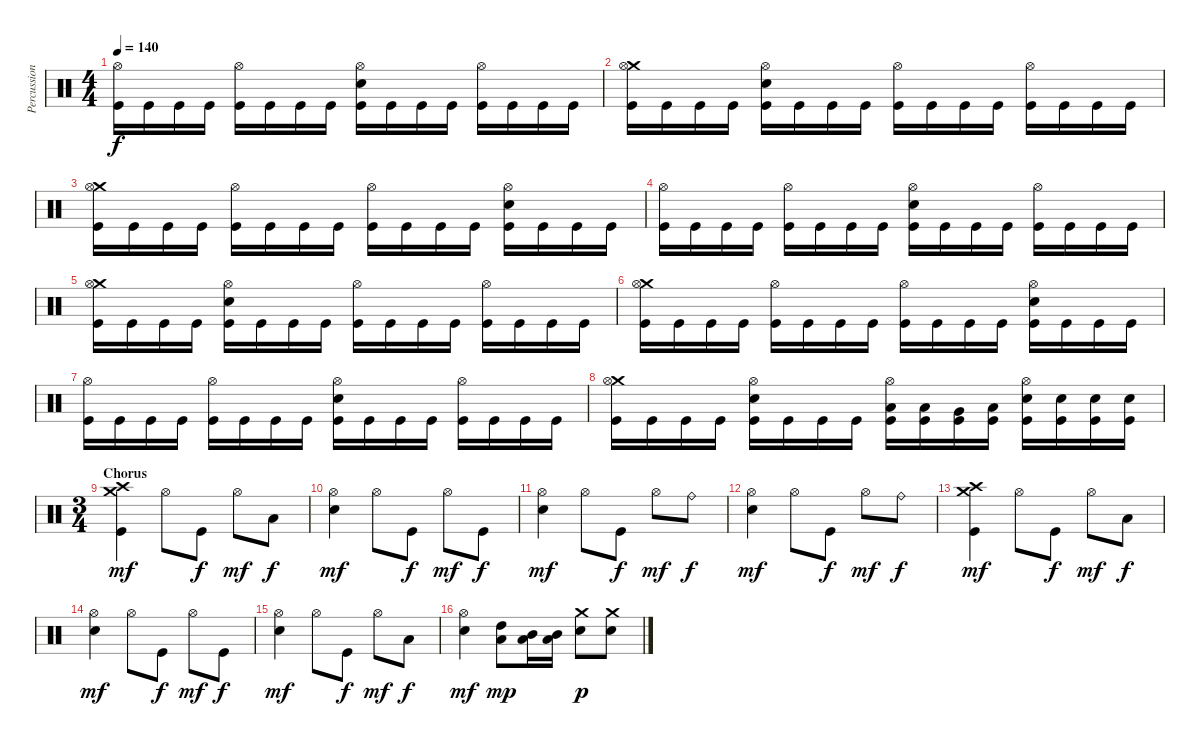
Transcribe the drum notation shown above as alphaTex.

\track ("Percussion" "Percussion") {instrument percussion}
\staff {score}
\articulation defaults
\ts (4 4)
\tempo 140
\clef neutral
\ks c
("Hi-Hat (open)" "Kick (hit)").16{dy f} "Kick (hit)".16 "Kick (hit)".16 "Kick (hit)".16 ("Hi-Hat (open)" "Kick (hit)").16 "Kick (hit)".16 "Kick (hit)".16 "Kick (hit)".16 ("Electric Snare (hit)" "Hi-Hat (open)" "Kick (hit)").16 "Kick (hit)".16 "Kick (hit)".16 "Kick (hit)".16 ("Hi-Hat (open)" "Kick (hit)").16 "Kick (hit)".16 "Kick (hit)".16 "Kick (hit)".16 |
("Crash medium (hit)" "Hi-Hat (open)" "Kick (hit)").16 "Kick (hit)".16 "Kick (hit)".16 "Kick (hit)".16 ("Electric Snare (hit)" "Hi-Hat (open)" "Kick (hit)").16 "Kick (hit)".16 "Kick (hit)".16 "Kick (hit)".16 ("Hi-Hat (open)" "Kick (hit)").16 "Kick (hit)".16 "Kick (hit)".16 "Kick (hit)".16 ("Hi-Hat (open)" "Kick (hit)").16 "Kick (hit)".16 "Kick (hit)".16 "Kick (hit)".16 |
("Crash medium (hit)" "Hi-Hat (open)" "Kick (hit)").16 "Kick (hit)".16 "Kick (hit)".16 "Kick (hit)".16 ("Hi-Hat (open)" "Kick (hit)").16 "Kick (hit)".16 "Kick (hit)".16 "Kick (hit)".16 ("Hi-Hat (open)" "Kick (hit)").16 "Kick (hit)".16 "Kick (hit)".16 "Kick (hit)".16 ("Electric Snare (hit)" "Hi-Hat (open)" "Kick (hit)").16 "Kick (hit)".16 "Kick (hit)".16 "Kick (hit)".16 |
("Hi-Hat (open)" "Kick (hit)").16 "Kick (hit)".16 "Kick (hit)".16 "Kick (hit)".16 ("Hi-Hat (open)" "Kick (hit)").16 "Kick (hit)".16 "Kick (hit)".16 "Kick (hit)".16 ("Electric Snare (hit)" "Hi-Hat (open)" "Kick (hit)").16 "Kick (hit)".16 "Kick (hit)".16 "Kick (hit)".16 ("Hi-Hat (open)" "Kick (hit)").16 "Kick (hit)".16 "Kick (hit)".16 "Kick (hit)".16 |
("Crash medium (hit)" "Hi-Hat (open)" "Kick (hit)").16 "Kick (hit)".16 "Kick (hit)".16 "Kick (hit)".16 ("Electric Snare (hit)" "Hi-Hat (open)" "Kick (hit)").16 "Kick (hit)".16 "Kick (hit)".16 "Kick (hit)".16 ("Hi-Hat (open)" "Kick (hit)").16 "Kick (hit)".16 "Kick (hit)".16 "Kick (hit)".16 ("Hi-Hat (open)" "Kick (hit)").16 "Kick (hit)".16 "Kick (hit)".16 "Kick (hit)".16 |
("Crash medium (hit)" "Hi-Hat (open)" "Kick (hit)").16 "Kick (hit)".16 "Kick (hit)".16 "Kick (hit)".16 ("Hi-Hat (open)" "Kick (hit)").16 "Kick (hit)".16 "Kick (hit)".16 "Kick (hit)".16 ("Hi-Hat (open)" "Kick (hit)").16 "Kick (hit)".16 "Kick (hit)".16 "Kick (hit)".16 ("Electric Snare (hit)" "Hi-Hat (open)" "Kick (hit)").16 "Kick (hit)".16 "Kick (hit)".16 "Kick (hit)".16 |
("Hi-Hat (open)" "Kick (hit)").16 "Kick (hit)".16 "Kick (hit)".16 "Kick (hit)".16 ("Hi-Hat (open)" "Kick (hit)").16 "Kick (hit)".16 "Kick (hit)".16 "Kick (hit)".16 ("Electric Snare (hit)" "Hi-Hat (open)" "Kick (hit)").16 "Kick (hit)".16 "Kick (hit)".16 "Kick (hit)".16 ("Hi-Hat (open)" "Kick (hit)").16 "Kick (hit)".16 "Kick (hit)".16 "Kick (hit)".16 |
("Crash medium (hit)" "Hi-Hat (open)" "Kick (hit)").16 "Kick (hit)".16 "Kick (hit)".16 "Kick (hit)".16 ("Electric Snare (hit)" "Hi-Hat (open)" "Kick (hit)").16 "Kick (hit)".16 "Kick (hit)".16 "Kick (hit)".16 ("Low Tom (hit)" "Hi-Hat (open)" "Kick (hit)").16 ("Low Tom (hit)" "Kick (hit)").16 ("Very Low Tom (hit)" "Kick (hit)").16 ("Low Floor Tom (hit)" "Kick (hit)").16 ("Electric Snare (hit)" "Hi-Hat (open)" "Kick (hit)").16 ("Electric Snare (hit)" "Kick (hit)").16 ("Electric Snare (hit)" "Kick (hit)").16 ("Electric Snare (hit)" "Kick (hit)").16 |
\ts (3 4)
\section ("" "Chorus")
("Kick (hit)" "Crash high (hit)" "Crash medium (hit)").4{dy mf} "Hi-Hat (open)".8 "Kick (hit)".8{dy f} "Hi-Hat (open)".8{dy mf} "Low Floor Tom (hit)".8{dy f} |
("Electric Snare (hit)" "Hi-Hat (open)").4{dy mf} "Hi-Hat (open)".8 "Kick (hit)".8{dy f} "Hi-Hat (open)".8{dy mf} "Kick (hit)".8{dy f} |
("Electric Snare (hit)" "Hi-Hat (open)").4{dy mf} "Hi-Hat (open)".8 "Kick (hit)".8{dy f} "Hi-Hat (open)".8{dy mf} "Ride (bell)".8{dy f} |
("Electric Snare (hit)" "Hi-Hat (open)").4{dy mf} "Hi-Hat (open)".8 "Kick (hit)".8{dy f} "Hi-Hat (open)".8{dy mf} "Ride (bell)".8{dy f} |
("Kick (hit)" "Crash high (hit)" "Crash medium (hit)").4{dy mf} "Hi-Hat (open)".8 "Kick (hit)".8{dy f} "Hi-Hat (open)".8{dy mf} "Low Floor Tom (hit)".8{dy f} |
("Electric Snare (hit)" "Hi-Hat (open)").4{dy mf} "Hi-Hat (open)".8 "Kick (hit)".8{dy f} "Hi-Hat (open)".8{dy mf} "Kick (hit)".8{dy f} |
("Electric Snare (hit)" "Hi-Hat (open)").4{dy mf} "Hi-Hat (open)".8 "Kick (hit)".8{dy f} "Hi-Hat (open)".8{dy mf} "Low Floor Tom (hit)".8{dy f} |
("Electric Snare (hit)" "Hi-Hat (open)").4{dy mf} ("Low Tom (hit)" "High Tom (hit)").8{dy mp} ("Low Tom (hit)" "Mid Tom (hit)").16 ("Low Tom (hit)" "Mid Tom (hit)").16 ("Electric Snare (hit)" "Crash medium (hit)").8{dy p} ("Electric Snare (hit)" "Crash medium (hit)").8
